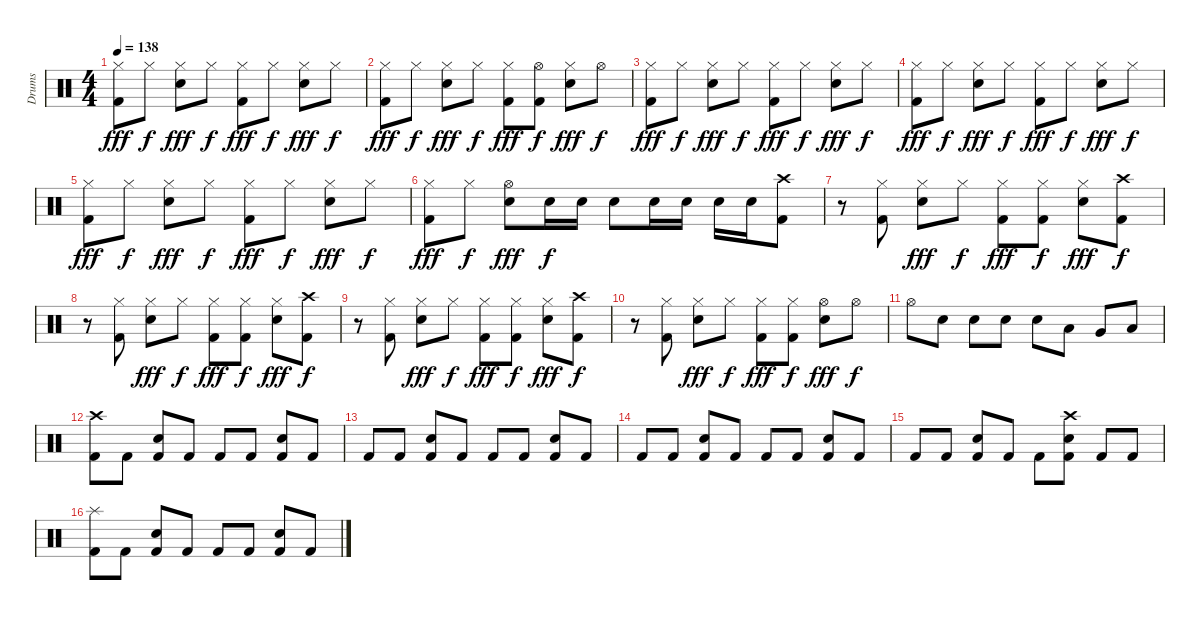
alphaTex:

\track ("Drums" "Drums") {instrument percussion}
\staff {score}
\articulation defaults
\ts (4 4)
\tempo 138
\clef neutral
\ks c
("Hi-Hat (closed)" "Kick (hit) 2").8{dy fff} "Hi-Hat (closed)".8{dy f} ("Hi-Hat (closed)" "Snare (hit) 2").8{dy fff} "Hi-Hat (closed)".8{dy f} ("Hi-Hat (closed)" "Kick (hit) 2").8{dy fff} "Hi-Hat (closed)".8{dy f} ("Hi-Hat (closed)" "Snare (hit) 2").8{dy fff} "Hi-Hat (closed)".8{dy f} |
("Hi-Hat (closed)" "Kick (hit) 2").8{dy fff} "Hi-Hat (closed)".8{dy f} ("Hi-Hat (closed)" "Snare (hit) 2").8{dy fff} "Hi-Hat (closed)".8{dy f} ("Hi-Hat (closed)" "Kick (hit) 2").8{dy fff} ("Hi-Hat (open)" "Kick (hit) 2").8{dy f} ("Hi-Hat (closed)" "Snare (hit) 2").8{dy fff} "Hi-Hat (open)".8{dy f} |
("Hi-Hat (closed)" "Kick (hit) 2").8{dy fff} "Hi-Hat (closed)".8{dy f} ("Hi-Hat (closed)" "Snare (hit) 2").8{dy fff} "Hi-Hat (closed)".8{dy f} ("Hi-Hat (closed)" "Kick (hit) 2").8{dy fff} "Hi-Hat (closed)".8{dy f} ("Hi-Hat (closed)" "Snare (hit) 2").8{dy fff} "Hi-Hat (closed)".8{dy f} |
("Hi-Hat (closed)" "Kick (hit) 2").8{dy fff} "Hi-Hat (closed)".8{dy f} ("Hi-Hat (closed)" "Snare (hit) 2").8{dy fff} "Hi-Hat (closed)".8{dy f} ("Hi-Hat (closed)" "Kick (hit) 2").8{dy fff} "Hi-Hat (closed)".8{dy f} ("Hi-Hat (closed)" "Snare (hit) 2").8{dy fff} "Hi-Hat (closed)".8{dy f} |
("Hi-Hat (closed)" "Kick (hit) 2").8{dy fff} "Hi-Hat (closed)".8{dy f} ("Hi-Hat (closed)" "Snare (hit) 2").8{dy fff} "Hi-Hat (closed)".8{dy f} ("Hi-Hat (closed)" "Kick (hit) 2").8{dy fff} "Hi-Hat (closed)".8{dy f} ("Hi-Hat (closed)" "Snare (hit) 2").8{dy fff} "Hi-Hat (closed)".8{dy f} |
("Hi-Hat (closed)" "Kick (hit) 2").8{dy fff} "Hi-Hat (closed)".8{dy f} ("Hi-Hat (open)" "Snare (hit) 2").8{dy fff} "Snare (hit) 2".16{dy f} "Snare (hit) 2".16 "Snare (hit) 2".8 "Snare (hit) 2".16 "Snare (hit) 2".16 "Snare (hit) 2".16 "Snare (hit) 2".16 ("Crash high (hit)" "Kick (hit) 2").8 |
r.8 ("Hi-Hat (closed)" "Kick (hit) 2").8 ("Hi-Hat (closed)" "Snare (hit) 2").8{dy fff} "Hi-Hat (closed)".8{dy f} ("Hi-Hat (closed)" "Kick (hit) 2").8{dy fff} ("Hi-Hat (closed)" "Kick (hit) 2").8{dy f} ("Hi-Hat (closed)" "Snare (hit) 2").8{dy fff} ("Crash high (hit)" "Kick (hit) 2").8{dy f} |
r.8 ("Hi-Hat (closed)" "Kick (hit) 2").8 ("Hi-Hat (closed)" "Snare (hit) 2").8{dy fff} "Hi-Hat (closed)".8{dy f} ("Hi-Hat (closed)" "Kick (hit) 2").8{dy fff} ("Hi-Hat (closed)" "Kick (hit) 2").8{dy f} ("Hi-Hat (closed)" "Snare (hit) 2").8{dy fff} ("Crash high (hit)" "Kick (hit) 2").8{dy f} |
r.8 ("Hi-Hat (closed)" "Kick (hit) 2").8 ("Hi-Hat (closed)" "Snare (hit) 2").8{dy fff} "Hi-Hat (closed)".8{dy f} ("Hi-Hat (closed)" "Kick (hit) 2").8{dy fff} ("Hi-Hat (closed)" "Kick (hit) 2").8{dy f} ("Hi-Hat (closed)" "Snare (hit) 2").8{dy fff} ("Crash high (hit)" "Kick (hit) 2").8{dy f} |
r.8 ("Hi-Hat (closed)" "Kick (hit) 2").8 ("Hi-Hat (closed)" "Snare (hit) 2").8{dy fff} "Hi-Hat (closed)".8{dy f} ("Hi-Hat (closed)" "Kick (hit) 2").8{dy fff} ("Hi-Hat (closed)" "Kick (hit) 2").8{dy f} ("Hi-Hat (open)" "Snare (hit) 2").8{dy fff} "Hi-Hat (open)".8{dy f} |
"Hi-Hat (open)".8 "Snare (hit) 2".8 "Snare (hit) 2".8 "Snare (hit) 2".8 "Snare (hit) 2".8 "Low Tom (hit)".8 "Very Low Tom (hit)".8 "Low Floor Tom (hit)".8 |
("Crash high (hit)" "Kick (hit) 2").8 "Kick (hit) 2".8 ("Snare (hit) 2" "Kick (hit) 2").8 "Kick (hit) 2".8 "Kick (hit) 2".8 "Kick (hit) 2".8 ("Snare (hit) 2" "Kick (hit) 2").8 "Kick (hit) 2".8 |
"Kick (hit) 2".8 "Kick (hit) 2".8 ("Snare (hit) 2" "Kick (hit) 2").8 "Kick (hit) 2".8 "Kick (hit) 2".8 "Kick (hit) 2".8 ("Snare (hit) 2" "Kick (hit) 2").8 "Kick (hit) 2".8 |
"Kick (hit) 2".8 "Kick (hit) 2".8 ("Snare (hit) 2" "Kick (hit) 2").8 "Kick (hit) 2".8 "Kick (hit) 2".8 "Kick (hit) 2".8 ("Snare (hit) 2" "Kick (hit) 2").8 "Kick (hit) 2".8 |
"Kick (hit) 2".8 "Kick (hit) 2".8 ("Snare (hit) 2" "Kick (hit) 2").8 "Kick (hit) 2".8 "Kick (hit) 2".8 ("Crash high (hit)" "Snare (hit) 2" "Kick (hit) 2").8 "Kick (hit) 2".8 "Kick (hit) 2".8 |
("Splash (hit)" "Kick (hit) 2").8 "Kick (hit) 2".8 ("Snare (hit) 2" "Kick (hit) 2").8 "Kick (hit) 2".8 "Kick (hit) 2".8 "Kick (hit) 2".8 ("Snare (hit) 2" "Kick (hit) 2").8 "Kick (hit) 2".8
